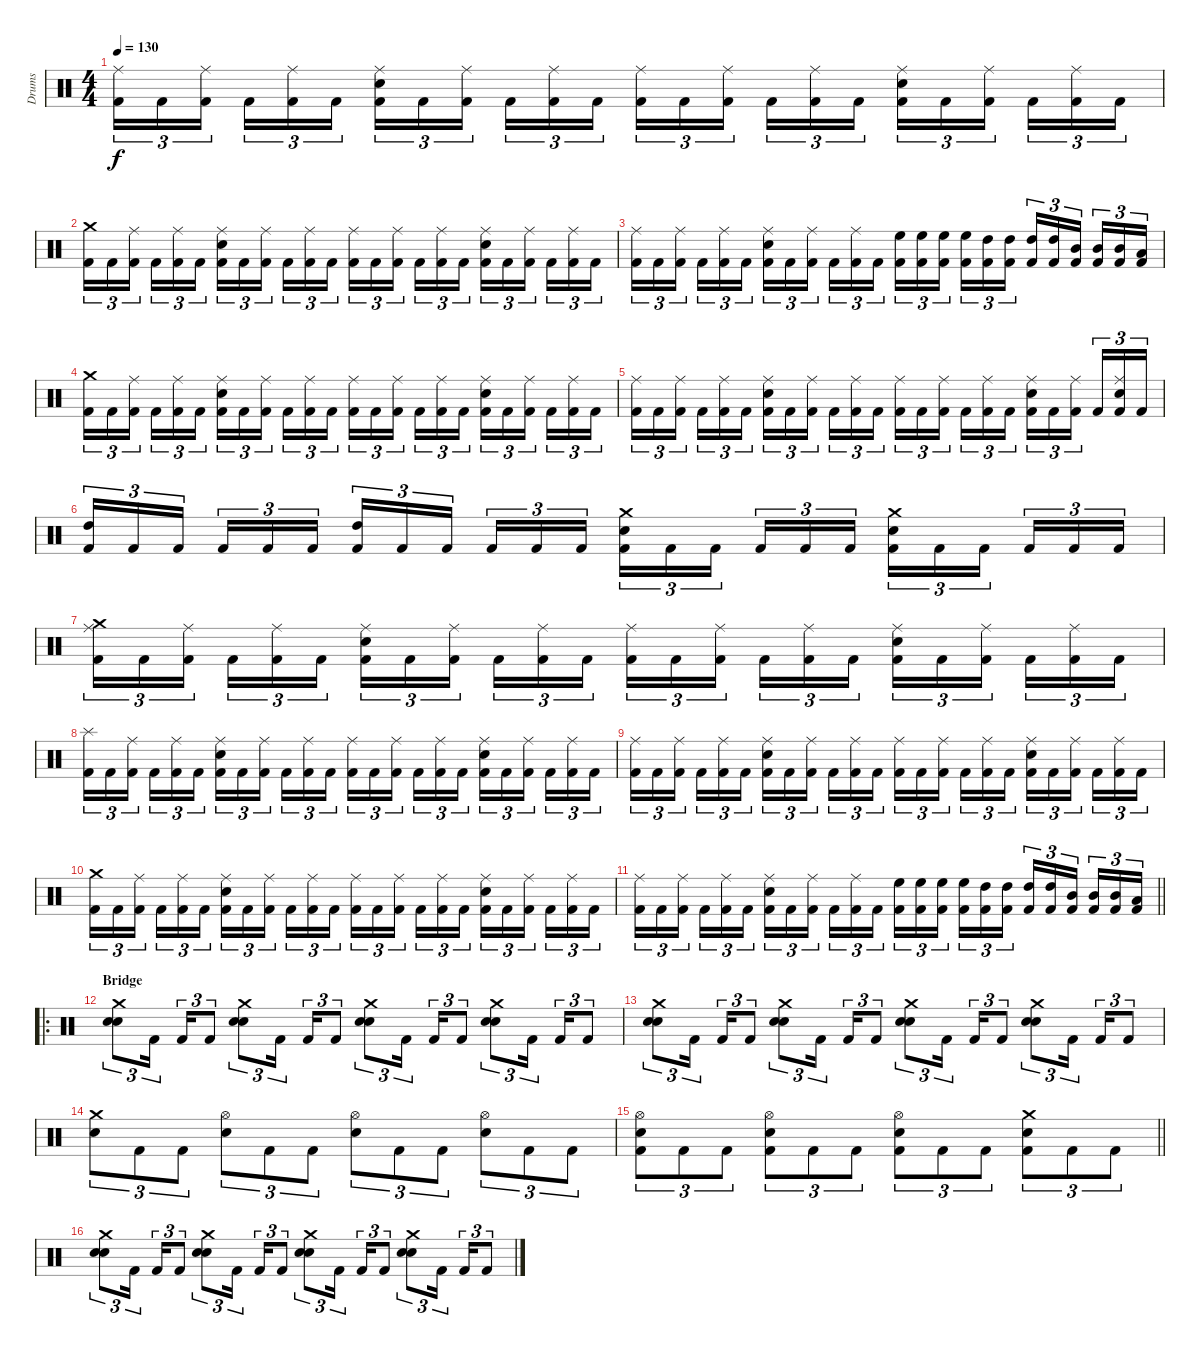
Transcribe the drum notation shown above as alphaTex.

\track ("Drums" "Drums") {instrument percussion}
\staff {score}
\articulation defaults
\ts (4 4)
\tempo 130
\clef neutral
\ks c
("Kick (hit) 2" "Ride (middle)").16{tu (3 2) dy f} "Kick (hit) 2".16{tu (3 2)} ("Kick (hit) 2" "Ride (middle)").16{tu (3 2) beam splitsecondary} "Kick (hit) 2".16{tu (3 2)} ("Kick (hit) 2" "Ride (middle)").16{tu (3 2)} "Kick (hit) 2".16{tu (3 2)} ("Kick (hit) 2" "Electric Snare (hit)" "Ride (middle)").16{tu (3 2)} "Kick (hit) 2".16{tu (3 2)} ("Kick (hit) 2" "Ride (middle)").16{tu (3 2) beam splitsecondary} "Kick (hit) 2".16{tu (3 2)} ("Kick (hit) 2" "Ride (middle)").16{tu (3 2)} "Kick (hit) 2".16{tu (3 2)} ("Kick (hit) 2" "Ride (middle)").16{tu (3 2)} "Kick (hit) 2".16{tu (3 2)} ("Kick (hit) 2" "Ride (middle)").16{tu (3 2) beam splitsecondary} "Kick (hit) 2".16{tu (3 2)} ("Kick (hit) 2" "Ride (middle)").16{tu (3 2)} "Kick (hit) 2".16{tu (3 2)} ("Kick (hit) 2" "Electric Snare (hit)" "Ride (middle)").16{tu (3 2)} "Kick (hit) 2".16{tu (3 2)} ("Kick (hit) 2" "Ride (middle)").16{tu (3 2) beam splitsecondary} "Kick (hit) 2".16{tu (3 2)} ("Kick (hit) 2" "Ride (middle)").16{tu (3 2)} "Kick (hit) 2".16{tu (3 2)} |
("Kick (hit) 2" "Crash medium (hit)").16{tu (3 2)} "Kick (hit) 2".16{tu (3 2)} ("Kick (hit) 2" "Ride (middle)").16{tu (3 2) beam splitsecondary} "Kick (hit) 2".16{tu (3 2)} ("Kick (hit) 2" "Ride (middle)").16{tu (3 2)} "Kick (hit) 2".16{tu (3 2)} ("Kick (hit) 2" "Electric Snare (hit)" "Ride (middle)").16{tu (3 2)} "Kick (hit) 2".16{tu (3 2)} ("Kick (hit) 2" "Ride (middle)").16{tu (3 2) beam splitsecondary} "Kick (hit) 2".16{tu (3 2)} ("Kick (hit) 2" "Ride (middle)").16{tu (3 2)} "Kick (hit) 2".16{tu (3 2)} ("Kick (hit) 2" "Ride (middle)").16{tu (3 2)} "Kick (hit) 2".16{tu (3 2)} ("Kick (hit) 2" "Ride (middle)").16{tu (3 2) beam splitsecondary} "Kick (hit) 2".16{tu (3 2)} ("Kick (hit) 2" "Ride (middle)").16{tu (3 2)} "Kick (hit) 2".16{tu (3 2)} ("Kick (hit) 2" "Electric Snare (hit)" "Ride (middle)").16{tu (3 2)} "Kick (hit) 2".16{tu (3 2)} ("Kick (hit) 2" "Ride (middle)").16{tu (3 2) beam splitsecondary} "Kick (hit) 2".16{tu (3 2)} ("Kick (hit) 2" "Ride (middle)").16{tu (3 2)} "Kick (hit) 2".16{tu (3 2)} |
("Kick (hit) 2" "Ride (middle)").16{tu (3 2)} "Kick (hit) 2".16{tu (3 2)} ("Kick (hit) 2" "Ride (middle)").16{tu (3 2) beam splitsecondary} "Kick (hit) 2".16{tu (3 2)} ("Kick (hit) 2" "Ride (middle)").16{tu (3 2)} "Kick (hit) 2".16{tu (3 2)} ("Kick (hit) 2" "Electric Snare (hit)" "Ride (middle)").16{tu (3 2)} "Kick (hit) 2".16{tu (3 2)} ("Kick (hit) 2" "Ride (middle)").16{tu (3 2) beam splitsecondary} "Kick (hit) 2".16{tu (3 2)} ("Kick (hit) 2" "Ride (middle)").16{tu (3 2)} "Kick (hit) 2".16{tu (3 2)} ("Kick (hit) 2" "High Floor Tom (hit)").16{tu (3 2)} ("Kick (hit) 2" "High Floor Tom (hit)").16{tu (3 2)} ("Kick (hit) 2" "High Floor Tom (hit)").16{tu (3 2) beam splitsecondary} ("Kick (hit) 2" "High Floor Tom (hit)").16{tu (3 2)} ("Kick (hit) 2" "High Tom (hit)").16{tu (3 2)} ("Kick (hit) 2" "High Tom (hit)").16{tu (3 2)} ("Kick (hit) 2" "High Tom (hit)").16{tu (3 2)} ("Kick (hit) 2" "High Tom (hit)").16{tu (3 2)} ("Kick (hit) 2" "Mid Tom (hit)").16{tu (3 2) beam splitsecondary} ("Kick (hit) 2" "Mid Tom (hit)").16{tu (3 2)} ("Kick (hit) 2" "Mid Tom (hit)").16{tu (3 2)} ("Kick (hit) 2" "Low Tom (hit)").16{tu (3 2)} |
("Kick (hit) 2" "Crash medium (hit)").16{tu (3 2)} "Kick (hit) 2".16{tu (3 2)} ("Kick (hit) 2" "Ride (middle)").16{tu (3 2) beam splitsecondary} "Kick (hit) 2".16{tu (3 2)} ("Kick (hit) 2" "Ride (middle)").16{tu (3 2)} "Kick (hit) 2".16{tu (3 2)} ("Kick (hit) 2" "Electric Snare (hit)" "Ride (middle)").16{tu (3 2)} "Kick (hit) 2".16{tu (3 2)} ("Kick (hit) 2" "Ride (middle)").16{tu (3 2) beam splitsecondary} "Kick (hit) 2".16{tu (3 2)} ("Kick (hit) 2" "Ride (middle)").16{tu (3 2)} "Kick (hit) 2".16{tu (3 2)} ("Kick (hit) 2" "Ride (middle)").16{tu (3 2)} "Kick (hit) 2".16{tu (3 2)} ("Kick (hit) 2" "Ride (middle)").16{tu (3 2) beam splitsecondary} "Kick (hit) 2".16{tu (3 2)} ("Kick (hit) 2" "Ride (middle)").16{tu (3 2)} "Kick (hit) 2".16{tu (3 2)} ("Kick (hit) 2" "Electric Snare (hit)" "Ride (middle)").16{tu (3 2)} "Kick (hit) 2".16{tu (3 2)} ("Kick (hit) 2" "Ride (middle)").16{tu (3 2) beam splitsecondary} "Kick (hit) 2".16{tu (3 2)} ("Kick (hit) 2" "Ride (middle)").16{tu (3 2)} "Kick (hit) 2".16{tu (3 2)} |
("Kick (hit) 2" "Ride (middle)").16{tu (3 2)} "Kick (hit) 2".16{tu (3 2)} ("Kick (hit) 2" "Ride (middle)").16{tu (3 2) beam splitsecondary} "Kick (hit) 2".16{tu (3 2)} ("Kick (hit) 2" "Ride (middle)").16{tu (3 2)} "Kick (hit) 2".16{tu (3 2)} ("Kick (hit) 2" "Electric Snare (hit)" "Ride (middle)").16{tu (3 2)} "Kick (hit) 2".16{tu (3 2)} ("Kick (hit) 2" "Ride (middle)").16{tu (3 2) beam splitsecondary} "Kick (hit) 2".16{tu (3 2)} ("Kick (hit) 2" "Ride (middle)").16{tu (3 2)} "Kick (hit) 2".16{tu (3 2)} ("Kick (hit) 2" "Ride (middle)").16{tu (3 2)} "Kick (hit) 2".16{tu (3 2)} ("Kick (hit) 2" "Ride (middle)").16{tu (3 2) beam splitsecondary} "Kick (hit) 2".16{tu (3 2)} ("Kick (hit) 2" "Ride (middle)").16{tu (3 2)} "Kick (hit) 2".16{tu (3 2)} ("Kick (hit) 2" "Electric Snare (hit)" "Ride (middle)").16{tu (3 2)} "Kick (hit) 2".16{tu (3 2)} ("Kick (hit) 2" "Ride (middle)").16{tu (3 2) beam splitsecondary} "Kick (hit) 2".16{tu (3 2)} ("Kick (hit) 2" "Electric Snare (hit)" "Ride (middle)").16{tu (3 2)} "Kick (hit) 2".16{tu (3 2)} |
("Kick (hit) 2" "High Tom (hit)").16{tu (3 2)} "Kick (hit) 2".16{tu (3 2)} "Kick (hit) 2".16{tu (3 2) beam splitsecondary} "Kick (hit) 2".16{tu (3 2)} "Kick (hit) 2".16{tu (3 2)} "Kick (hit) 2".16{tu (3 2)} ("Kick (hit) 2" "High Tom (hit)").16{tu (3 2)} "Kick (hit) 2".16{tu (3 2)} "Kick (hit) 2".16{tu (3 2) beam splitsecondary} "Kick (hit) 2".16{tu (3 2)} "Kick (hit) 2".16{tu (3 2)} "Kick (hit) 2".16{tu (3 2)} ("Kick (hit) 2" "Electric Snare (hit)" "Crash medium (hit)").16{tu (3 2)} "Kick (hit) 2".16{tu (3 2)} "Kick (hit) 2".16{tu (3 2) beam splitsecondary} "Kick (hit) 2".16{tu (3 2)} "Kick (hit) 2".16{tu (3 2)} "Kick (hit) 2".16{tu (3 2)} ("Kick (hit) 2" "Electric Snare (hit)" "Crash medium (hit)").16{tu (3 2)} "Kick (hit) 2".16{tu (3 2)} "Kick (hit) 2".16{tu (3 2) beam splitsecondary} "Kick (hit) 2".16{tu (3 2)} "Kick (hit) 2".16{tu (3 2)} "Kick (hit) 2".16{tu (3 2)} |
("Kick (hit) 2" "Crash medium (hit)" "Ride (middle)").16{tu (3 2)} "Kick (hit) 2".16{tu (3 2)} ("Kick (hit) 2" "Ride (middle)").16{tu (3 2) beam splitsecondary} "Kick (hit) 2".16{tu (3 2)} ("Kick (hit) 2" "Ride (middle)").16{tu (3 2)} "Kick (hit) 2".16{tu (3 2)} ("Kick (hit) 2" "Electric Snare (hit)" "Ride (middle)").16{tu (3 2)} "Kick (hit) 2".16{tu (3 2)} ("Kick (hit) 2" "Ride (middle)").16{tu (3 2) beam splitsecondary} "Kick (hit) 2".16{tu (3 2)} ("Kick (hit) 2" "Ride (middle)").16{tu (3 2)} "Kick (hit) 2".16{tu (3 2)} ("Kick (hit) 2" "Ride (middle)").16{tu (3 2)} "Kick (hit) 2".16{tu (3 2)} ("Kick (hit) 2" "Ride (middle)").16{tu (3 2) beam splitsecondary} "Kick (hit) 2".16{tu (3 2)} ("Kick (hit) 2" "Ride (middle)").16{tu (3 2)} "Kick (hit) 2".16{tu (3 2)} ("Kick (hit) 2" "Electric Snare (hit)" "Ride (middle)").16{tu (3 2)} "Kick (hit) 2".16{tu (3 2)} ("Kick (hit) 2" "Ride (middle)").16{tu (3 2) beam splitsecondary} "Kick (hit) 2".16{tu (3 2)} ("Kick (hit) 2" "Ride (middle)").16{tu (3 2)} "Kick (hit) 2".16{tu (3 2)} |
("Kick (hit) 2" "Splash (hit)").16{tu (3 2)} "Kick (hit) 2".16{tu (3 2)} ("Kick (hit) 2" "Ride (middle)").16{tu (3 2) beam splitsecondary} "Kick (hit) 2".16{tu (3 2)} ("Kick (hit) 2" "Ride (middle)").16{tu (3 2)} "Kick (hit) 2".16{tu (3 2)} ("Kick (hit) 2" "Electric Snare (hit)" "Ride (middle)").16{tu (3 2)} "Kick (hit) 2".16{tu (3 2)} ("Kick (hit) 2" "Ride (middle)").16{tu (3 2) beam splitsecondary} "Kick (hit) 2".16{tu (3 2)} ("Kick (hit) 2" "Ride (middle)").16{tu (3 2)} "Kick (hit) 2".16{tu (3 2)} ("Kick (hit) 2" "Ride (middle)").16{tu (3 2)} "Kick (hit) 2".16{tu (3 2)} ("Kick (hit) 2" "Ride (middle)").16{tu (3 2) beam splitsecondary} "Kick (hit) 2".16{tu (3 2)} ("Kick (hit) 2" "Ride (middle)").16{tu (3 2)} "Kick (hit) 2".16{tu (3 2)} ("Kick (hit) 2" "Electric Snare (hit)" "Ride (middle)").16{tu (3 2)} "Kick (hit) 2".16{tu (3 2)} ("Kick (hit) 2" "Ride (middle)").16{tu (3 2) beam splitsecondary} "Kick (hit) 2".16{tu (3 2)} ("Kick (hit) 2" "Ride (middle)").16{tu (3 2)} "Kick (hit) 2".16{tu (3 2)} |
("Kick (hit) 2" "Ride (middle)").16{tu (3 2)} "Kick (hit) 2".16{tu (3 2)} ("Kick (hit) 2" "Ride (middle)").16{tu (3 2) beam splitsecondary} "Kick (hit) 2".16{tu (3 2)} ("Kick (hit) 2" "Ride (middle)").16{tu (3 2)} "Kick (hit) 2".16{tu (3 2)} ("Kick (hit) 2" "Electric Snare (hit)" "Ride (middle)").16{tu (3 2)} "Kick (hit) 2".16{tu (3 2)} ("Kick (hit) 2" "Ride (middle)").16{tu (3 2) beam splitsecondary} "Kick (hit) 2".16{tu (3 2)} ("Kick (hit) 2" "Ride (middle)").16{tu (3 2)} "Kick (hit) 2".16{tu (3 2)} ("Kick (hit) 2" "Ride (middle)").16{tu (3 2)} "Kick (hit) 2".16{tu (3 2)} ("Kick (hit) 2" "Ride (middle)").16{tu (3 2) beam splitsecondary} "Kick (hit) 2".16{tu (3 2)} ("Kick (hit) 2" "Ride (middle)").16{tu (3 2)} "Kick (hit) 2".16{tu (3 2)} ("Kick (hit) 2" "Electric Snare (hit)" "Ride (middle)").16{tu (3 2)} "Kick (hit) 2".16{tu (3 2)} ("Kick (hit) 2" "Ride (middle)").16{tu (3 2) beam splitsecondary} "Kick (hit) 2".16{tu (3 2)} ("Kick (hit) 2" "Ride (middle)").16{tu (3 2)} "Kick (hit) 2".16{tu (3 2)} |
("Kick (hit) 2" "Crash medium (hit)").16{tu (3 2)} "Kick (hit) 2".16{tu (3 2)} ("Kick (hit) 2" "Ride (middle)").16{tu (3 2) beam splitsecondary} "Kick (hit) 2".16{tu (3 2)} ("Kick (hit) 2" "Ride (middle)").16{tu (3 2)} "Kick (hit) 2".16{tu (3 2)} ("Kick (hit) 2" "Electric Snare (hit)" "Ride (middle)").16{tu (3 2)} "Kick (hit) 2".16{tu (3 2)} ("Kick (hit) 2" "Ride (middle)").16{tu (3 2) beam splitsecondary} "Kick (hit) 2".16{tu (3 2)} ("Kick (hit) 2" "Ride (middle)").16{tu (3 2)} "Kick (hit) 2".16{tu (3 2)} ("Kick (hit) 2" "Ride (middle)").16{tu (3 2)} "Kick (hit) 2".16{tu (3 2)} ("Kick (hit) 2" "Ride (middle)").16{tu (3 2) beam splitsecondary} "Kick (hit) 2".16{tu (3 2)} ("Kick (hit) 2" "Ride (middle)").16{tu (3 2)} "Kick (hit) 2".16{tu (3 2)} ("Kick (hit) 2" "Electric Snare (hit)" "Ride (middle)").16{tu (3 2)} "Kick (hit) 2".16{tu (3 2)} ("Kick (hit) 2" "Ride (middle)").16{tu (3 2) beam splitsecondary} "Kick (hit) 2".16{tu (3 2)} ("Kick (hit) 2" "Ride (middle)").16{tu (3 2)} "Kick (hit) 2".16{tu (3 2)} |
\barLineRight lightlight
("Kick (hit) 2" "Ride (middle)").16{tu (3 2)} "Kick (hit) 2".16{tu (3 2)} ("Kick (hit) 2" "Ride (middle)").16{tu (3 2) beam splitsecondary} "Kick (hit) 2".16{tu (3 2)} ("Kick (hit) 2" "Ride (middle)").16{tu (3 2)} "Kick (hit) 2".16{tu (3 2)} ("Kick (hit) 2" "Electric Snare (hit)" "Ride (middle)").16{tu (3 2)} "Kick (hit) 2".16{tu (3 2)} ("Kick (hit) 2" "Ride (middle)").16{tu (3 2) beam splitsecondary} "Kick (hit) 2".16{tu (3 2)} ("Kick (hit) 2" "Ride (middle)").16{tu (3 2)} "Kick (hit) 2".16{tu (3 2)} ("Kick (hit) 2" "High Floor Tom (hit)").16{tu (3 2)} ("Kick (hit) 2" "High Floor Tom (hit)").16{tu (3 2)} ("Kick (hit) 2" "High Floor Tom (hit)").16{tu (3 2) beam splitsecondary} ("Kick (hit) 2" "High Floor Tom (hit)").16{tu (3 2)} ("Kick (hit) 2" "High Tom (hit)").16{tu (3 2)} ("Kick (hit) 2" "High Tom (hit)").16{tu (3 2)} ("Kick (hit) 2" "High Tom (hit)").16{tu (3 2)} ("Kick (hit) 2" "High Tom (hit)").16{tu (3 2)} ("Kick (hit) 2" "Mid Tom (hit)").16{tu (3 2) beam splitsecondary} ("Kick (hit) 2" "Mid Tom (hit)").16{tu (3 2)} ("Kick (hit) 2" "Mid Tom (hit)").16{tu (3 2)} ("Kick (hit) 2" "Low Tom (hit)").16{tu (3 2)} |
\ro
\section ("" "Bridge")
("Crash medium (hit)" "Electric Snare (hit)" "Electric Snare (hit)").8{tu (3 2)} "Kick (hit) 2".16{tu (3 2) beam splitsecondary} "Kick (hit) 2".16{tu (3 2)} "Kick (hit) 2".8{tu (3 2)} ("Crash medium (hit)" "Electric Snare (hit)" "Electric Snare (hit)").8{tu (3 2)} "Kick (hit) 2".16{tu (3 2) beam splitsecondary} "Kick (hit) 2".16{tu (3 2)} "Kick (hit) 2".8{tu (3 2)} ("Crash medium (hit)" "Electric Snare (hit)" "Electric Snare (hit)").8{tu (3 2)} "Kick (hit) 2".16{tu (3 2) beam splitsecondary} "Kick (hit) 2".16{tu (3 2)} "Kick (hit) 2".8{tu (3 2)} ("Crash medium (hit)" "Electric Snare (hit)" "Electric Snare (hit)").8{tu (3 2)} "Kick (hit) 2".16{tu (3 2) beam splitsecondary} "Kick (hit) 2".16{tu (3 2)} "Kick (hit) 2".8{tu (3 2)} |
("Crash medium (hit)" "Electric Snare (hit)" "Electric Snare (hit)").8{tu (3 2)} "Kick (hit) 2".16{tu (3 2) beam splitsecondary} "Kick (hit) 2".16{tu (3 2)} "Kick (hit) 2".8{tu (3 2)} ("Crash medium (hit)" "Electric Snare (hit)" "Electric Snare (hit)").8{tu (3 2)} "Kick (hit) 2".16{tu (3 2) beam splitsecondary} "Kick (hit) 2".16{tu (3 2)} "Kick (hit) 2".8{tu (3 2)} ("Crash medium (hit)" "Electric Snare (hit)" "Electric Snare (hit)").8{tu (3 2)} "Kick (hit) 2".16{tu (3 2) beam splitsecondary} "Kick (hit) 2".16{tu (3 2)} "Kick (hit) 2".8{tu (3 2)} ("Crash medium (hit)" "Electric Snare (hit)" "Electric Snare (hit)").8{tu (3 2)} "Kick (hit) 2".16{tu (3 2) beam splitsecondary} "Kick (hit) 2".16{tu (3 2)} "Kick (hit) 2".8{tu (3 2)} |
("Crash medium (hit)" "Electric Snare (hit)").8{tu (3 2)} "Kick (hit) 2".8{tu (3 2)} "Kick (hit) 2".8{tu (3 2)} ("Hi-Hat (open)" "Electric Snare (hit)").8{tu (3 2)} "Kick (hit) 2".8{tu (3 2)} "Kick (hit) 2".8{tu (3 2)} ("Hi-Hat (open)" "Electric Snare (hit)").8{tu (3 2)} "Kick (hit) 2".8{tu (3 2)} "Kick (hit) 2".8{tu (3 2)} ("Hi-Hat (open)" "Electric Snare (hit)").8{tu (3 2)} "Kick (hit) 2".8{tu (3 2)} "Kick (hit) 2".8{tu (3 2)} |
\barLineRight lightlight
("Hi-Hat (open)" "Electric Snare (hit)" "Kick (hit) 2").8{tu (3 2)} "Kick (hit) 2".8{tu (3 2)} "Kick (hit) 2".8{tu (3 2)} ("Hi-Hat (open)" "Electric Snare (hit)" "Kick (hit) 2").8{tu (3 2)} "Kick (hit) 2".8{tu (3 2)} "Kick (hit) 2".8{tu (3 2)} ("Hi-Hat (open)" "Electric Snare (hit)" "Kick (hit) 2").8{tu (3 2)} "Kick (hit) 2".8{tu (3 2)} "Kick (hit) 2".8{tu (3 2)} ("Crash medium (hit)" "Electric Snare (hit)" "Kick (hit) 2").8{tu (3 2)} "Kick (hit) 2".8{tu (3 2)} "Kick (hit) 2".8{tu (3 2)} |
("Crash medium (hit)" "Electric Snare (hit)" "Electric Snare (hit)").8{tu (3 2)} "Kick (hit) 2".16{tu (3 2) beam splitsecondary} "Kick (hit) 2".16{tu (3 2)} "Kick (hit) 2".8{tu (3 2)} ("Crash medium (hit)" "Electric Snare (hit)" "Electric Snare (hit)").8{tu (3 2)} "Kick (hit) 2".16{tu (3 2) beam splitsecondary} "Kick (hit) 2".16{tu (3 2)} "Kick (hit) 2".8{tu (3 2)} ("Crash medium (hit)" "Electric Snare (hit)" "Electric Snare (hit)").8{tu (3 2)} "Kick (hit) 2".16{tu (3 2) beam splitsecondary} "Kick (hit) 2".16{tu (3 2)} "Kick (hit) 2".8{tu (3 2)} ("Crash medium (hit)" "Electric Snare (hit)" "Electric Snare (hit)").8{tu (3 2)} "Kick (hit) 2".16{tu (3 2) beam splitsecondary} "Kick (hit) 2".16{tu (3 2)} "Kick (hit) 2".8{tu (3 2)}
